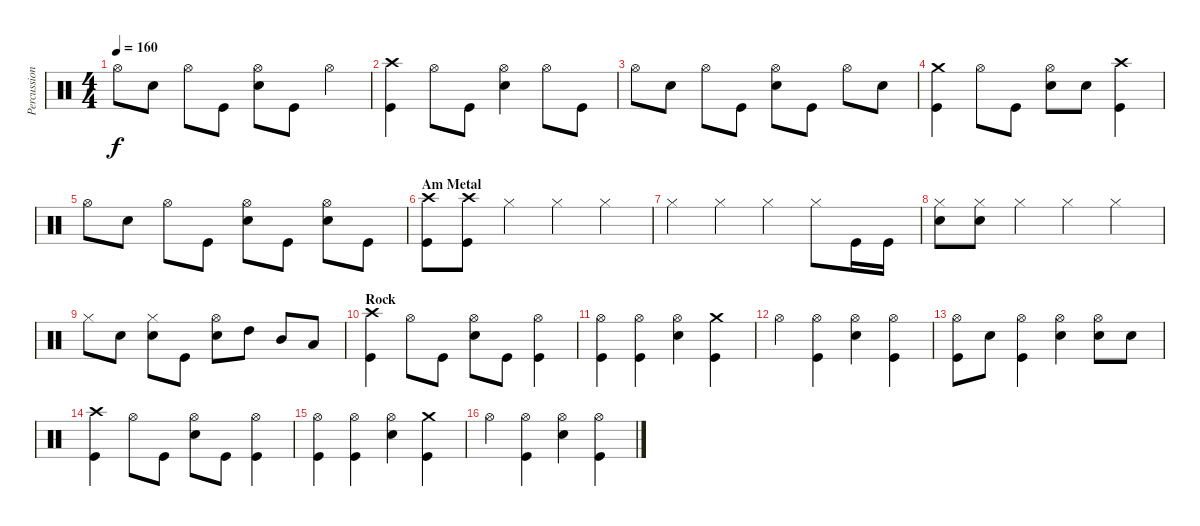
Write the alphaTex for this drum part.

\track ("Percussion" "Percussion") {instrument percussion}
\staff {score}
\articulation defaults
\ts (4 4)
\tempo 160
\clef neutral
\ks c "Hi-Hat (open)".8{dy f} "Electric Snare (hit)".8 "Hi-Hat (open)".8 "Kick (hit)".8
("Hi-Hat (open)" "Electric Snare (hit)").8 "Kick (hit)".8 "Hi-Hat (open)".4 |
("Crash high (hit)" "Kick (hit)").4 "Hi-Hat (open)".8 "Kick (hit)".8 ("Hi-Hat (open)" "Electric Snare (hit)").4 "Hi-Hat (open)".8 "Kick (hit)".8 |
"Hi-Hat (open)".8 "Electric Snare (hit)".8 "Hi-Hat (open)".8 "Kick (hit)".8 ("Hi-Hat (open)" "Electric Snare (hit)").8 "Kick (hit)".8 "Hi-Hat (open)".8 "Electric Snare (hit)".8 |
("Crash medium (hit)" "Kick (hit)").4 "Hi-Hat (open)".8 "Kick (hit)".8 ("Hi-Hat (open)" "Electric Snare (hit)").8 "Electric Snare (hit)".8 ("Crash high (hit)" "Kick (hit)").4 |
"Hi-Hat (open)".8 "Electric Snare (hit)".8 "Hi-Hat (open)".8 "Kick (hit)".8 ("Hi-Hat (open)" "Electric Snare (hit)").8 "Kick (hit)".8 ("Hi-Hat (open)" "Electric Snare (hit)").8 "Kick (hit)".8 |
\section ("" "Am Metal")
("Crash high (hit)" "Kick (hit)").8 ("Crash high (hit)" "Kick (hit)").8 "Hi-Hat (closed)".4 "Hi-Hat (closed)".4 "Hi-Hat (closed)".4 |
"Hi-Hat (closed)".4 "Hi-Hat (closed)".4 "Hi-Hat (closed)".4 "Hi-Hat (closed)".8 "Kick (hit)".16 "Kick (hit)".16 |
("Hi-Hat (closed)" "Electric Snare (hit)").8 ("Hi-Hat (closed)" "Electric Snare (hit)").8 "Hi-Hat (closed)".4 "Hi-Hat (closed)".4 "Hi-Hat (closed)".4 |
"Hi-Hat (closed)".8 "Electric Snare (hit)".8 ("Hi-Hat (closed)" "Electric Snare (hit)").8 "Kick (hit)".8 ("Hi-Hat (open)" "Electric Snare (hit)").8 "High Tom (hit)".8 "Mid Tom (hit)".8 "Low Tom (hit)".8 |
\section ("" "Rock")
("Crash high (hit)" "Kick (hit)").4 "Hi-Hat (open)".8 "Kick (hit)".8 ("Hi-Hat (open)" "Electric Snare (hit)").8 "Kick (hit)".8 ("Hi-Hat (open)" "Kick (hit)").4 |
("Hi-Hat (open)" "Kick (hit)").4 ("Hi-Hat (open)" "Kick (hit)").4 ("Hi-Hat (open)" "Electric Snare (hit)").4 ("Crash medium (hit)" "Kick (hit)").4 |
"Hi-Hat (open)".4 ("Hi-Hat (open)" "Kick (hit)").4 ("Hi-Hat (open)" "Electric Snare (hit)").4 ("Hi-Hat (open)" "Kick (hit)").4 |
("Hi-Hat (open)" "Kick (hit)").8 "Electric Snare (hit)".8 ("Hi-Hat (open)" "Kick (hit)").4 ("Hi-Hat (open)" "Electric Snare (hit)").4 ("Hi-Hat (open)" "Electric Snare (hit)").8 "Electric Snare (hit)".8 |
("Crash high (hit)" "Kick (hit)").4 "Hi-Hat (open)".8 "Kick (hit)".8 ("Hi-Hat (open)" "Electric Snare (hit)").8 "Kick (hit)".8 ("Hi-Hat (open)" "Kick (hit)").4 |
("Hi-Hat (open)" "Kick (hit)").4 ("Hi-Hat (open)" "Kick (hit)").4 ("Hi-Hat (open)" "Electric Snare (hit)").4 ("Crash medium (hit)" "Kick (hit)").4 |
"Hi-Hat (open)".4 ("Hi-Hat (open)" "Kick (hit)").4 ("Hi-Hat (open)" "Electric Snare (hit)").4 ("Hi-Hat (open)" "Kick (hit)").4
